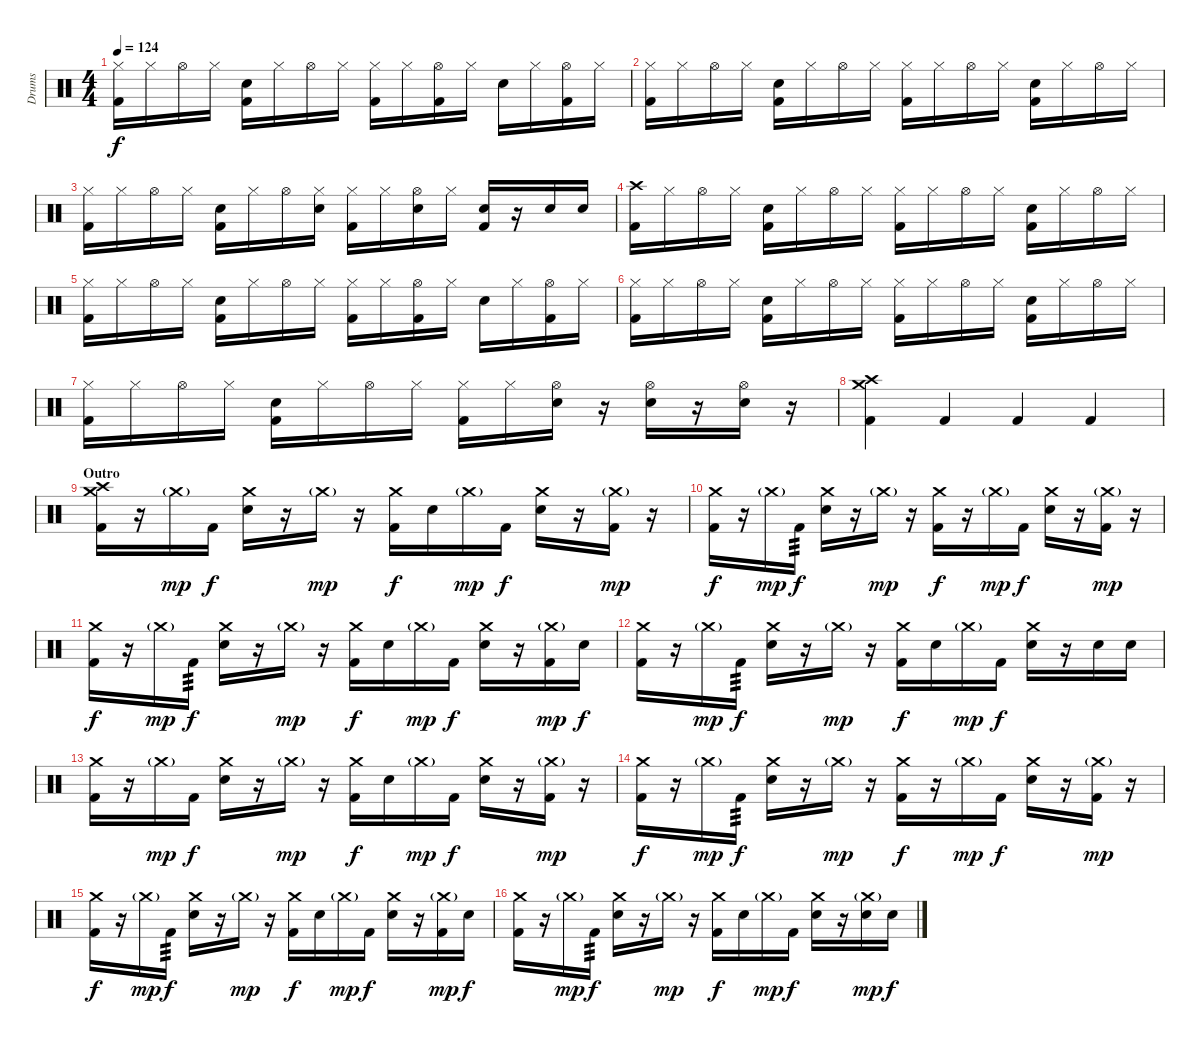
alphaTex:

\track ("Drums" "Drums") {instrument percussion}
\staff {score}
\articulation defaults
\ts (4 4)
\tempo 124
\clef neutral
\ks c
("Hi-Hat (closed)" "Kick (hit) 2").16{dy f} "Hi-Hat (closed)".16 "Hi-Hat (open)".16 "Hi-Hat (closed)".16 ("Electric Snare (hit)" "Kick (hit) 2").16 "Hi-Hat (closed)".16 "Hi-Hat (open)".16 "Hi-Hat (closed)".16 ("Hi-Hat (closed)" "Kick (hit) 2").16 "Hi-Hat (closed)".16 ("Hi-Hat (open)" "Kick (hit) 2").16 "Hi-Hat (closed)".16 "Electric Snare (hit)".16 "Hi-Hat (closed)".16 ("Hi-Hat (open)" "Kick (hit) 2").16 "Hi-Hat (closed)".16 |
("Hi-Hat (closed)" "Kick (hit) 2").16 "Hi-Hat (closed)".16 "Hi-Hat (open)".16 "Hi-Hat (closed)".16 ("Electric Snare (hit)" "Kick (hit) 2").16 "Hi-Hat (closed)".16 "Hi-Hat (open)".16 "Hi-Hat (closed)".16 ("Hi-Hat (closed)" "Kick (hit) 2").16 "Hi-Hat (closed)".16 "Hi-Hat (open)".16 "Hi-Hat (closed)".16 ("Electric Snare (hit)" "Kick (hit) 2").16 "Hi-Hat (closed)".16 "Hi-Hat (open)".16 "Hi-Hat (closed)".16 |
("Hi-Hat (closed)" "Kick (hit) 2").16 "Hi-Hat (closed)".16 "Hi-Hat (open)".16 "Hi-Hat (closed)".16 ("Electric Snare (hit)" "Kick (hit) 2").16 "Hi-Hat (closed)".16 "Hi-Hat (open)".16 ("Hi-Hat (closed)" "Electric Snare (hit)").16 ("Hi-Hat (closed)" "Kick (hit) 2").16 "Hi-Hat (closed)".16 ("Hi-Hat (open)" "Electric Snare (hit)").16 "Hi-Hat (closed)".16 ("Electric Snare (hit)" "Kick (hit) 2").16 r.16 "Electric Snare (hit)".16 "Electric Snare (hit)".16 |
("Crash high (hit)" "Kick (hit) 2").16 "Hi-Hat (closed)".16 "Hi-Hat (open)".16 "Hi-Hat (closed)".16 ("Electric Snare (hit)" "Kick (hit) 2").16 "Hi-Hat (closed)".16 "Hi-Hat (open)".16 "Hi-Hat (closed)".16 ("Hi-Hat (closed)" "Kick (hit) 2").16 "Hi-Hat (closed)".16 "Hi-Hat (open)".16 "Hi-Hat (closed)".16 ("Electric Snare (hit)" "Kick (hit) 2").16 "Hi-Hat (closed)".16 "Hi-Hat (open)".16 "Hi-Hat (closed)".16 |
("Hi-Hat (closed)" "Kick (hit) 2").16 "Hi-Hat (closed)".16 "Hi-Hat (open)".16 "Hi-Hat (closed)".16 ("Electric Snare (hit)" "Kick (hit) 2").16 "Hi-Hat (closed)".16 "Hi-Hat (open)".16 "Hi-Hat (closed)".16 ("Hi-Hat (closed)" "Kick (hit) 2").16 "Hi-Hat (closed)".16 ("Hi-Hat (open)" "Kick (hit) 2").16 "Hi-Hat (closed)".16 "Electric Snare (hit)".16 "Hi-Hat (closed)".16 ("Hi-Hat (open)" "Kick (hit) 2").16 "Hi-Hat (closed)".16 |
("Hi-Hat (closed)" "Kick (hit) 2").16 "Hi-Hat (closed)".16 "Hi-Hat (open)".16 "Hi-Hat (closed)".16 ("Electric Snare (hit)" "Kick (hit) 2").16 "Hi-Hat (closed)".16 "Hi-Hat (open)".16 "Hi-Hat (closed)".16 ("Hi-Hat (closed)" "Kick (hit) 2").16 "Hi-Hat (closed)".16 "Hi-Hat (open)".16 "Hi-Hat (closed)".16 ("Electric Snare (hit)" "Kick (hit) 2").16 "Hi-Hat (closed)".16 "Hi-Hat (open)".16 "Hi-Hat (closed)".16 |
("Hi-Hat (closed)" "Kick (hit) 2").16 "Hi-Hat (closed)".16 "Hi-Hat (open)".16 "Hi-Hat (closed)".16 ("Electric Snare (hit)" "Kick (hit) 2").16 "Hi-Hat (closed)".16 "Hi-Hat (open)".16 "Hi-Hat (closed)".16 ("Hi-Hat (closed)" "Kick (hit) 2").16 "Hi-Hat (closed)".16 ("Hi-Hat (open)" "Electric Snare (hit)").16 r.16 ("Hi-Hat (open)" "Electric Snare (hit)").16 r.16 ("Hi-Hat (open)" "Electric Snare (hit)").16 r.16 |
\section ("" "")
("Crash high (hit)" "Crash medium (hit)" "Kick (hit) 2").4 "Kick (hit) 2".4 "Kick (hit) 2".4 "Kick (hit) 2".4 |
\section ("" "Outro")
("Crash medium (hit)" "Crash high (hit)" "Kick (hit) 2").16 r.16 "Crash medium (hit)"{g}.16{dy mp} "Kick (hit) 2".16{dy f} ("Crash medium (hit)" "Electric Snare (hit)").16 r.16 "Crash medium (hit)"{g}.16{dy mp} r.16 ("Crash medium (hit)" "Kick (hit) 2").16{dy f} "Electric Snare (hit)".16 "Crash medium (hit)"{g}.16{dy mp} "Kick (hit) 2".16{dy f} ("Crash medium (hit)" "Electric Snare (hit)").16 r.16 ("Crash medium (hit)"{g} "Kick (hit) 2").16{dy mp} r.16 |
("Crash medium (hit)" "Kick (hit) 2").16{dy f} r.16 "Crash medium (hit)"{g}.16{dy mp} "Kick (hit) 2".16{tp 3 dy f} ("Crash medium (hit)" "Electric Snare (hit)").16 r.16 "Crash medium (hit)"{g}.16{dy mp} r.16 ("Crash medium (hit)" "Kick (hit) 2").16{dy f} r.16 "Crash medium (hit)"{g}.16{dy mp} "Kick (hit) 2".16{dy f} ("Crash medium (hit)" "Electric Snare (hit)").16 r.16 ("Crash medium (hit)"{g} "Kick (hit) 2").16{dy mp} r.16 |
("Crash medium (hit)" "Kick (hit) 2").16{dy f} r.16 "Crash medium (hit)"{g}.16{dy mp} "Kick (hit) 2".16{tp 3 dy f} ("Crash medium (hit)" "Electric Snare (hit)").16 r.16 "Crash medium (hit)"{g}.16{dy mp} r.16 ("Crash medium (hit)" "Kick (hit) 2").16{dy f} "Electric Snare (hit)".16 "Crash medium (hit)"{g}.16{dy mp} "Kick (hit) 2".16{dy f} ("Crash medium (hit)" "Electric Snare (hit)").16 r.16 ("Crash medium (hit)"{g} "Kick (hit) 2").16{dy mp} "Electric Snare (hit)".16{dy f} |
("Crash medium (hit)" "Kick (hit) 2").16 r.16 "Crash medium (hit)"{g}.16{dy mp} "Kick (hit) 2".16{tp 3 dy f} ("Crash medium (hit)" "Electric Snare (hit)").16 r.16 "Crash medium (hit)"{g}.16{dy mp} r.16 ("Crash medium (hit)" "Kick (hit) 2").16{dy f} "Electric Snare (hit)".16 "Crash medium (hit)"{g}.16{dy mp} "Kick (hit) 2".16{dy f} ("Crash medium (hit)" "Electric Snare (hit)").16 r.16 "Electric Snare (hit)".16 "Electric Snare (hit)".16 |
("Crash medium (hit)" "Kick (hit) 2").16 r.16 "Crash medium (hit)"{g}.16{dy mp} "Kick (hit) 2".16{dy f} ("Crash medium (hit)" "Electric Snare (hit)").16 r.16 "Crash medium (hit)"{g}.16{dy mp} r.16 ("Crash medium (hit)" "Kick (hit) 2").16{dy f} "Electric Snare (hit)".16 "Crash medium (hit)"{g}.16{dy mp} "Kick (hit) 2".16{dy f} ("Crash medium (hit)" "Electric Snare (hit)").16 r.16 ("Crash medium (hit)"{g} "Kick (hit) 2").16{dy mp} r.16 |
("Crash medium (hit)" "Kick (hit) 2").16{dy f} r.16 "Crash medium (hit)"{g}.16{dy mp} "Kick (hit) 2".16{tp 3 dy f} ("Crash medium (hit)" "Electric Snare (hit)").16 r.16 "Crash medium (hit)"{g}.16{dy mp} r.16 ("Crash medium (hit)" "Kick (hit) 2").16{dy f} r.16 "Crash medium (hit)"{g}.16{dy mp} "Kick (hit) 2".16{dy f} ("Crash medium (hit)" "Electric Snare (hit)").16 r.16 ("Crash medium (hit)"{g} "Kick (hit) 2").16{dy mp} r.16 |
("Crash medium (hit)" "Kick (hit) 2").16{dy f} r.16 "Crash medium (hit)"{g}.16{dy mp} "Kick (hit) 2".16{tp 3 dy f} ("Crash medium (hit)" "Electric Snare (hit)").16 r.16 "Crash medium (hit)"{g}.16{dy mp} r.16 ("Crash medium (hit)" "Kick (hit) 2").16{dy f} "Electric Snare (hit)".16 "Crash medium (hit)"{g}.16{dy mp} "Kick (hit) 2".16{dy f} ("Crash medium (hit)" "Electric Snare (hit)").16 r.16 ("Crash medium (hit)"{g} "Kick (hit) 2").16{dy mp} "Electric Snare (hit)".16{dy f} |
("Crash medium (hit)" "Kick (hit) 2").16 r.16 "Crash medium (hit)"{g}.16{dy mp} "Kick (hit) 2".16{tp 3 dy f} ("Crash medium (hit)" "Electric Snare (hit)").16 r.16 "Crash medium (hit)"{g}.16{dy mp} r.16 ("Crash medium (hit)" "Kick (hit) 2").16{dy f} "Electric Snare (hit)".16 "Crash medium (hit)"{g}.16{dy mp} "Kick (hit) 2".16{dy f} ("Crash medium (hit)" "Electric Snare (hit)").16 r.16 ("Crash medium (hit)"{g} "Electric Snare (hit)").16{dy mp} "Electric Snare (hit)".16{dy f}
